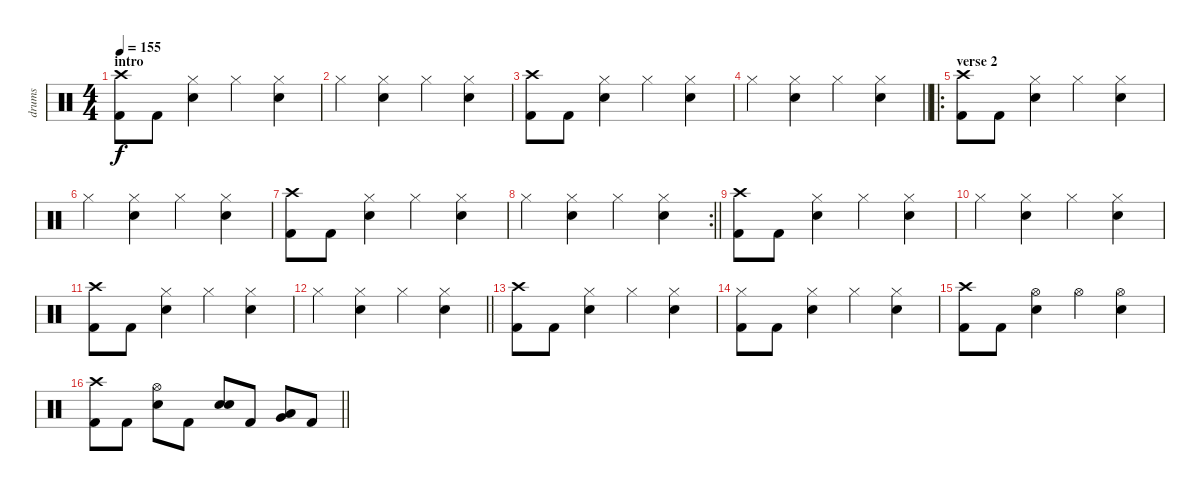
\track ("drums" "drums") {instrument percussion}
\staff
\articulation defaults
\ts (4 4)
\section ("" "intro")
\tempo 155
\clef neutral
\ks c
("Crash high (hit)" "Kick (hit) 2").8{dy f} "Kick (hit) 2".8 ("Hi-Hat (closed)" "Electric Snare (hit)").4 "Hi-Hat (closed)".4 ("Hi-Hat (closed)" "Electric Snare (hit)").4 |
"Hi-Hat (closed)".4 ("Hi-Hat (closed)" "Electric Snare (hit)").4 "Hi-Hat (closed)".4 ("Hi-Hat (closed)" "Electric Snare (hit)").4 |
("Crash high (hit)" "Kick (hit) 2").8 "Kick (hit) 2".8 ("Hi-Hat (closed)" "Electric Snare (hit)").4 "Hi-Hat (closed)".4 ("Hi-Hat (closed)" "Electric Snare (hit)").4 |
\barLineRight lightlight "Hi-Hat (closed)".4
("Hi-Hat (closed)" "Electric Snare (hit)").4 "Hi-Hat (closed)".4 ("Hi-Hat (closed)" "Electric Snare (hit)").4 |
\ro
\section ("" "verse 2")
("Crash high (hit)" "Kick (hit) 2").8 "Kick (hit) 2".8 ("Hi-Hat (closed)" "Electric Snare (hit)").4 "Hi-Hat (closed)".4 ("Hi-Hat (closed)" "Electric Snare (hit)").4 |
"Hi-Hat (closed)".4 ("Hi-Hat (closed)" "Electric Snare (hit)").4 "Hi-Hat (closed)".4 ("Hi-Hat (closed)" "Electric Snare (hit)").4 |
("Crash high (hit)" "Kick (hit) 2").8 "Kick (hit) 2".8 ("Hi-Hat (closed)" "Electric Snare (hit)").4 "Hi-Hat (closed)".4 ("Hi-Hat (closed)" "Electric Snare (hit)").4 |
\rc 2
\barLineRight lightlight "Hi-Hat (closed)".4
("Hi-Hat (closed)" "Electric Snare (hit)").4 "Hi-Hat (closed)".4 ("Hi-Hat (closed)" "Electric Snare (hit)").4 |
("Crash high (hit)" "Kick (hit) 2").8 "Kick (hit) 2".8 ("Hi-Hat (closed)" "Electric Snare (hit)").4 "Hi-Hat (closed)".4 ("Hi-Hat (closed)" "Electric Snare (hit)").4 |
"Hi-Hat (closed)".4 ("Hi-Hat (closed)" "Electric Snare (hit)").4 "Hi-Hat (closed)".4 ("Hi-Hat (closed)" "Electric Snare (hit)").4 |
("Crash high (hit)" "Kick (hit) 2").8 "Kick (hit) 2".8 ("Hi-Hat (closed)" "Electric Snare (hit)").4 "Hi-Hat (closed)".4 ("Hi-Hat (closed)" "Electric Snare (hit)").4 |
\barLineRight lightlight "Hi-Hat (closed)".4
("Hi-Hat (closed)" "Electric Snare (hit)").4 "Hi-Hat (closed)".4 ("Hi-Hat (closed)" "Electric Snare (hit)").4 |
("Crash high (hit)" "Kick (hit) 2").8 "Kick (hit) 2".8 ("Hi-Hat (closed)" "Electric Snare (hit)").4 "Hi-Hat (closed)".4 ("Hi-Hat (closed)" "Electric Snare (hit)").4 |
("Hi-Hat (closed)" "Kick (hit) 2").8 "Kick (hit) 2".8 ("Hi-Hat (closed)" "Electric Snare (hit)").4 "Hi-Hat (closed)".4 ("Hi-Hat (closed)" "Electric Snare (hit)").4 |
("Crash high (hit)" "Kick (hit) 2").8 "Kick (hit) 2".8 ("Hi-Hat (open)" "Electric Snare (hit)").4 "Hi-Hat (open)".4 ("Hi-Hat (open)" "Electric Snare (hit)").4 |
\barLineRight lightlight
("Crash high (hit)" "Kick (hit) 2").8 "Kick (hit) 2".8 ("Hi-Hat (open)" "Electric Snare (hit)").8 "Kick (hit) 2".8 ("Electric Snare (hit)" "Electric Snare (hit)").8{bd 480} "Kick (hit) 2".8 ("Very Low Tom (hit)" "Low Floor Tom (hit)").8 "Kick (hit) 2".8
